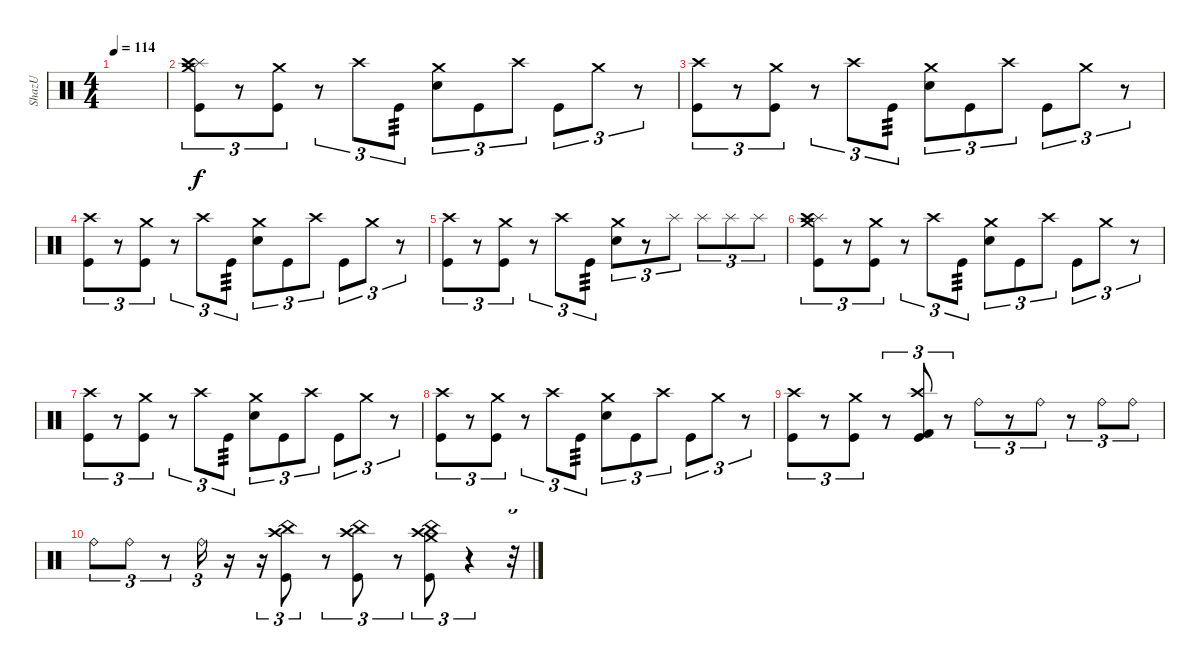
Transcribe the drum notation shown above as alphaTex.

\track ("ShazU" "ShazU") {instrument percussion}
\staff {score}
\articulation defaults
\ts (4 4)
\tempo 114
\clef neutral
\ks c
|
("Kick (hit)" "Splash (hit)" "Crash medium (hit)" "Crash high (hit)").8{tu (3 2)} r.8{tu (3 2)} ("Kick (hit)" "Crash medium (hit)").8{tu (3 2)} r.8{tu (3 2)} "Crash high (hit)".8{tu (3 2)} "Kick (hit)".8{tu (3 2) tp 3} ("Snare (hit) 2" "Crash medium (hit)").8{tu (3 2)} "Kick (hit)".8{tu (3 2)} "Crash high (hit)".8{tu (3 2)} "Kick (hit)".8{tu (3 2)} "Crash medium (hit)".8{tu (3 2)} r.8{tu (3 2)} |
("Kick (hit)" "Crash high (hit)").8{tu (3 2)} r.8{tu (3 2)} ("Kick (hit)" "Crash medium (hit)").8{tu (3 2)} r.8{tu (3 2)} "Crash high (hit)".8{tu (3 2)} "Kick (hit)".8{tu (3 2) tp 3} ("Snare (hit) 2" "Crash medium (hit)").8{tu (3 2)} "Kick (hit)".8{tu (3 2)} "Crash high (hit)".8{tu (3 2)} "Kick (hit)".8{tu (3 2)} "Crash medium (hit)".8{tu (3 2)} r.8{tu (3 2)} |
("Kick (hit)" "Crash high (hit)").8{tu (3 2)} r.8{tu (3 2)} ("Kick (hit)" "Crash medium (hit)").8{tu (3 2)} r.8{tu (3 2)} "Crash high (hit)".8{tu (3 2)} "Kick (hit)".8{tu (3 2) tp 3} ("Snare (hit) 2" "Crash medium (hit)").8{tu (3 2)} "Kick (hit)".8{tu (3 2)} "Crash high (hit)".8{tu (3 2)} "Kick (hit)".8{tu (3 2)} "Crash medium (hit)".8{tu (3 2)} r.8{tu (3 2)} |
("Kick (hit)" "Crash high (hit)").8{tu (3 2)} r.8{tu (3 2)} ("Kick (hit)" "Crash medium (hit)").8{tu (3 2)} r.8{tu (3 2)} "Crash high (hit)".8{tu (3 2)} "Kick (hit)".8{tu (3 2) tp 3} ("Snare (hit) 2" "Crash medium (hit)").8{tu (3 2)} r.8{tu (3 2)} "Splash (hit)".8{tu (3 2)} "Splash (hit)".8{tu (3 2)} "Splash (hit)".8{tu (3 2)} "Splash (hit)".8{tu (3 2)} |
("Kick (hit)" "Splash (hit)" "Crash medium (hit)" "Crash high (hit)").8{tu (3 2)} r.8{tu (3 2)} ("Kick (hit)" "Crash medium (hit)").8{tu (3 2)} r.8{tu (3 2)} "Crash high (hit)".8{tu (3 2)} "Kick (hit)".8{tu (3 2) tp 3} ("Snare (hit) 2" "Crash medium (hit)").8{tu (3 2)} "Kick (hit)".8{tu (3 2)} "Crash high (hit)".8{tu (3 2)} "Kick (hit)".8{tu (3 2)} "Crash medium (hit)".8{tu (3 2)} r.8{tu (3 2)} |
("Kick (hit)" "Crash high (hit)").8{tu (3 2)} r.8{tu (3 2)} ("Kick (hit)" "Crash medium (hit)").8{tu (3 2)} r.8{tu (3 2)} "Crash high (hit)".8{tu (3 2)} "Kick (hit)".8{tu (3 2) tp 3} ("Snare (hit) 2" "Crash medium (hit)").8{tu (3 2)} "Kick (hit)".8{tu (3 2)} "Crash high (hit)".8{tu (3 2)} "Kick (hit)".8{tu (3 2)} "Crash medium (hit)".8{tu (3 2)} r.8{tu (3 2)} |
("Kick (hit)" "Crash high (hit)").8{tu (3 2)} r.8{tu (3 2)} ("Kick (hit)" "Crash medium (hit)").8{tu (3 2)} r.8{tu (3 2)} "Crash high (hit)".8{tu (3 2)} "Kick (hit)".8{tu (3 2) tp 3} ("Snare (hit) 2" "Crash medium (hit)").8{tu (3 2)} "Kick (hit)".8{tu (3 2)} "Crash high (hit)".8{tu (3 2)} "Kick (hit)".8{tu (3 2)} "Crash medium (hit)".8{tu (3 2)} r.8{tu (3 2)} |
("Kick (hit)" "Crash high (hit)").8{tu (3 2)} r.8{tu (3 2)} ("Kick (hit)" "Crash medium (hit)").8{tu (3 2)} r.8{tu (3 2)} ("Kick (hit)" "Kick (hit) 2" "Crash high (hit)").8{tu (3 2)} r.8{tu (3 2)} "Ride (bell)".8{tu (3 2)} r.8{tu (3 2)} "Ride (bell)".8{tu (3 2)} r.8{tu (3 2)} "Ride (bell)".8{tu (3 2)} "Ride (bell)".8{tu (3 2)} |
"Ride (bell)".8{tu (3 2)} "Ride (bell)".8{tu (3 2)} r.8{tu (3 2)} "Ride (bell)".16{tu (3 2)} r.16 r.16{tu (3 2)} ("Kick (hit)" "Crash high (hit)" "China (hit)").8{tu (3 2)} r.8{tu (3 2)} ("Kick (hit)" "Crash high (hit)" "China (hit)").8{tu (3 2)} r.8{tu (3 2)} ("Kick (hit)" "Crash medium (hit)" "Crash high (hit)" "China (hit)").8{tu (3 2)} r.4{tu (3 2)} r.32{tu (3 2)}
